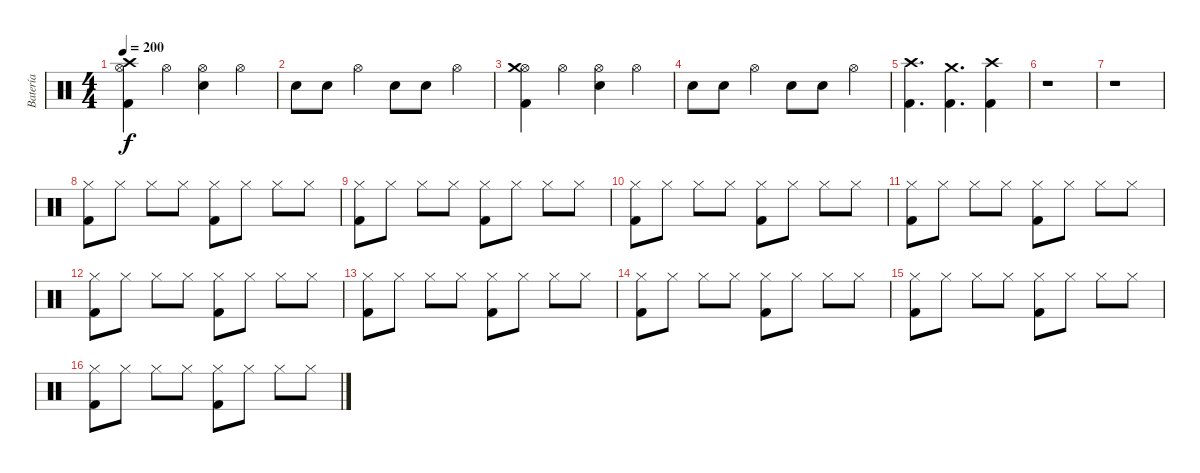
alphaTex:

\track ("Batería" "Batería") {instrument percussion}
\staff {score}
\articulation defaults
\ts (4 4)
\tempo 200
\clef neutral
\ks c
("Kick (hit) 2" "Hi-Hat (open)" "Crash high (hit)").4{dy f} "Hi-Hat (open)".4 ("Electric Snare (hit)" "Hi-Hat (open)").4 "Hi-Hat (open)".4 |
"Electric Snare (hit)".8 "Electric Snare (hit)".8 "Hi-Hat (open)".4 "Electric Snare (hit)".8 "Electric Snare (hit)".8 "Hi-Hat (open)".4 |
("Kick (hit) 2" "Hi-Hat (open)" "Crash medium (hit)").4 "Hi-Hat (open)".4 ("Electric Snare (hit)" "Hi-Hat (open)").4 "Hi-Hat (open)".4 |
"Electric Snare (hit)".8 "Electric Snare (hit)".8 "Hi-Hat (open)".4 "Electric Snare (hit)".8 "Electric Snare (hit)".8 "Hi-Hat (open)".4 |
("Kick (hit) 2" "Crash high (hit)").4{d} ("Kick (hit) 2" "Crash medium (hit)").4{d} ("Kick (hit) 2" "Crash high (hit)").4 |
r.1 |
r.1 |
("Kick (hit) 2" "Hi-Hat (closed)").8 "Hi-Hat (closed)".8 "Hi-Hat (closed)".8 "Hi-Hat (closed)".8 ("Kick (hit) 2" "Hi-Hat (closed)").8 "Hi-Hat (closed)".8 "Hi-Hat (closed)".8 "Hi-Hat (closed)".8 |
("Kick (hit) 2" "Hi-Hat (closed)").8 "Hi-Hat (closed)".8 "Hi-Hat (closed)".8 "Hi-Hat (closed)".8 ("Kick (hit) 2" "Hi-Hat (closed)").8 "Hi-Hat (closed)".8 "Hi-Hat (closed)".8 "Hi-Hat (closed)".8 |
("Kick (hit) 2" "Hi-Hat (closed)").8 "Hi-Hat (closed)".8 "Hi-Hat (closed)".8 "Hi-Hat (closed)".8 ("Kick (hit) 2" "Hi-Hat (closed)").8 "Hi-Hat (closed)".8 "Hi-Hat (closed)".8 "Hi-Hat (closed)".8 |
("Kick (hit) 2" "Hi-Hat (closed)").8 "Hi-Hat (closed)".8 "Hi-Hat (closed)".8 "Hi-Hat (closed)".8 ("Kick (hit) 2" "Hi-Hat (closed)").8 "Hi-Hat (closed)".8 "Hi-Hat (closed)".8 "Hi-Hat (closed)".8 |
("Kick (hit) 2" "Hi-Hat (closed)").8 "Hi-Hat (closed)".8 "Hi-Hat (closed)".8 "Hi-Hat (closed)".8 ("Kick (hit) 2" "Hi-Hat (closed)").8 "Hi-Hat (closed)".8 "Hi-Hat (closed)".8 "Hi-Hat (closed)".8 |
("Kick (hit) 2" "Hi-Hat (closed)").8 "Hi-Hat (closed)".8 "Hi-Hat (closed)".8 "Hi-Hat (closed)".8 ("Kick (hit) 2" "Hi-Hat (closed)").8 "Hi-Hat (closed)".8 "Hi-Hat (closed)".8 "Hi-Hat (closed)".8 |
("Kick (hit) 2" "Hi-Hat (closed)").8 "Hi-Hat (closed)".8 "Hi-Hat (closed)".8 "Hi-Hat (closed)".8 ("Kick (hit) 2" "Hi-Hat (closed)").8 "Hi-Hat (closed)".8 "Hi-Hat (closed)".8 "Hi-Hat (closed)".8 |
("Kick (hit) 2" "Hi-Hat (closed)").8 "Hi-Hat (closed)".8 "Hi-Hat (closed)".8 "Hi-Hat (closed)".8 ("Kick (hit) 2" "Hi-Hat (closed)").8 "Hi-Hat (closed)".8 "Hi-Hat (closed)".8 "Hi-Hat (closed)".8 |
("Kick (hit) 2" "Hi-Hat (closed)").8 "Hi-Hat (closed)".8 "Hi-Hat (closed)".8 "Hi-Hat (closed)".8 ("Kick (hit) 2" "Hi-Hat (closed)").8 "Hi-Hat (closed)".8 "Hi-Hat (closed)".8 "Hi-Hat (closed)".8
